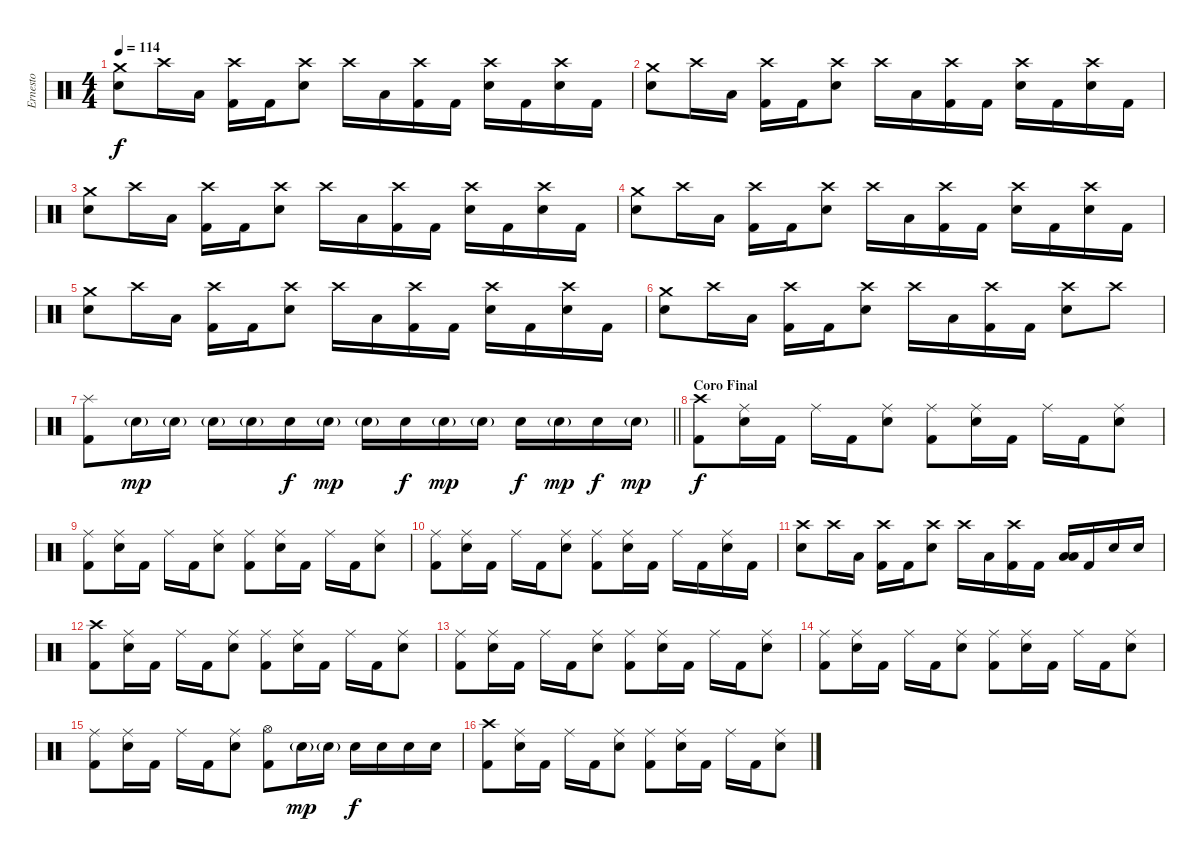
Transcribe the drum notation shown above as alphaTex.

\track ("Ernesto" "Ernesto") {instrument percussion}
\staff
\articulation defaults
\ts (4 4)
\tempo 114
\clef neutral
\ks c
("Crash medium (hit)" "Electric Snare (hit)").8{dy f} "Crash high (hit)".16 "Low Tom (hit)".16 ("Crash high (hit)" "Kick (hit) 2").16 "Kick (hit) 2".16 ("Crash high (hit)" "Electric Snare (hit)").8 "Crash high (hit)".16 "Low Tom (hit)".16 ("Crash high (hit)" "Kick (hit) 2").16 "Kick (hit) 2".16 ("Crash high (hit)" "Electric Snare (hit)").16 "Kick (hit) 2".16 ("Crash high (hit)" "Electric Snare (hit)").16 "Kick (hit) 2".16 |
("Crash medium (hit)" "Electric Snare (hit)").8 "Crash high (hit)".16 "Low Tom (hit)".16 ("Crash high (hit)" "Kick (hit) 2").16 "Kick (hit) 2".16 ("Crash high (hit)" "Electric Snare (hit)").8 "Crash high (hit)".16 "Low Tom (hit)".16 ("Crash high (hit)" "Kick (hit) 2").16 "Kick (hit) 2".16 ("Crash high (hit)" "Electric Snare (hit)").16 "Kick (hit) 2".16 ("Crash high (hit)" "Electric Snare (hit)").16 "Kick (hit) 2".16 |
("Crash medium (hit)" "Electric Snare (hit)").8 "Crash high (hit)".16 "Low Tom (hit)".16 ("Crash high (hit)" "Kick (hit) 2").16 "Kick (hit) 2".16 ("Crash high (hit)" "Electric Snare (hit)").8 "Crash high (hit)".16 "Low Tom (hit)".16 ("Crash high (hit)" "Kick (hit) 2").16 "Kick (hit) 2".16 ("Crash high (hit)" "Electric Snare (hit)").16 "Kick (hit) 2".16 ("Crash high (hit)" "Electric Snare (hit)").16 "Kick (hit) 2".16 |
("Crash medium (hit)" "Electric Snare (hit)").8 "Crash high (hit)".16 "Low Tom (hit)".16 ("Crash high (hit)" "Kick (hit) 2").16 "Kick (hit) 2".16 ("Crash high (hit)" "Electric Snare (hit)").8 "Crash high (hit)".16 "Low Tom (hit)".16 ("Crash high (hit)" "Kick (hit) 2").16 "Kick (hit) 2".16 ("Crash high (hit)" "Electric Snare (hit)").16 "Kick (hit) 2".16 ("Crash high (hit)" "Electric Snare (hit)").16 "Kick (hit) 2".16 |
("Crash medium (hit)" "Electric Snare (hit)").8 "Crash high (hit)".16 "Low Tom (hit)".16 ("Crash high (hit)" "Kick (hit) 2").16 "Kick (hit) 2".16 ("Crash high (hit)" "Electric Snare (hit)").8 "Crash high (hit)".16 "Low Tom (hit)".16 ("Crash high (hit)" "Kick (hit) 2").16 "Kick (hit) 2".16 ("Crash high (hit)" "Electric Snare (hit)").16 "Kick (hit) 2".16 ("Crash high (hit)" "Electric Snare (hit)").16 "Kick (hit) 2".16 |
("Crash medium (hit)" "Electric Snare (hit)").8 "Crash high (hit)".16 "Low Tom (hit)".16 ("Crash high (hit)" "Kick (hit) 2").16 "Kick (hit) 2".16 ("Crash high (hit)" "Electric Snare (hit)").8 "Crash high (hit)".16 "Low Tom (hit)".16 ("Crash high (hit)" "Kick (hit) 2").16 "Kick (hit) 2".16 ("Crash high (hit)" "Electric Snare (hit)").8 "Crash high (hit)".8 |
\barLineRight lightlight
("Splash (hit)" "Kick (hit) 2").8 "Electric Snare (hit)"{g}.16{dy mp} "Electric Snare (hit)"{g}.16 "Electric Snare (hit)"{g}.16 "Electric Snare (hit)"{g}.16 "Electric Snare (hit)".16{dy f} "Electric Snare (hit)"{g}.16{dy mp} "Electric Snare (hit)"{g}.16 "Electric Snare (hit)".16{dy f} "Electric Snare (hit)"{g}.16{dy mp} "Electric Snare (hit)"{g}.16 "Electric Snare (hit)".16{dy f} "Electric Snare (hit)"{g}.16{dy mp} "Electric Snare (hit)".16{dy f} "Electric Snare (hit)"{g}.16{dy mp} |
\section ("" "Coro Final")
("Crash high (hit)" "Kick (hit) 2").8{dy f} ("Ride (middle)" "Electric Snare (hit)").16 "Kick (hit) 2".16 "Ride (middle)".16 "Kick (hit) 2".16 ("Ride (middle)" "Electric Snare (hit)").8 ("Ride (middle)" "Kick (hit) 2").8 ("Ride (middle)" "Electric Snare (hit)").16 "Kick (hit) 2".16 "Ride (middle)".16 "Kick (hit) 2".16 ("Ride (middle)" "Electric Snare (hit)").8 |
("Ride (middle)" "Kick (hit) 2").8 ("Ride (middle)" "Electric Snare (hit)").16 "Kick (hit) 2".16 "Ride (middle)".16 "Kick (hit) 2".16 ("Ride (middle)" "Electric Snare (hit)").8 ("Ride (middle)" "Kick (hit) 2").8 ("Ride (middle)" "Electric Snare (hit)").16 "Kick (hit) 2".16 "Ride (middle)".16 "Kick (hit) 2".16 ("Ride (middle)" "Electric Snare (hit)").8 |
("Ride (middle)" "Kick (hit) 2").8 ("Ride (middle)" "Electric Snare (hit)").16 "Kick (hit) 2".16 "Ride (middle)".16 "Kick (hit) 2".16 ("Ride (middle)" "Electric Snare (hit)").8 ("Ride (middle)" "Kick (hit) 2").8 ("Ride (middle)" "Electric Snare (hit)").16 "Kick (hit) 2".16 "Ride (middle)".16 "Kick (hit) 2".16 ("Ride (middle)" "Electric Snare (hit)").16 "Kick (hit) 2".16 |
("Crash high (hit)" "Electric Snare (hit)").8 "Crash high (hit)".16 "Low Tom (hit)".16 ("Crash high (hit)" "Kick (hit) 2").16 "Kick (hit) 2".16 ("Crash high (hit)" "Electric Snare (hit)").8 "Crash high (hit)".16 "Low Tom (hit)".16 ("Crash high (hit)" "Kick (hit) 2").16 "Kick (hit) 2".16 ("Low Tom (hit)" "Low Floor Tom (hit)").16 "Kick (hit) 2".16 "Electric Snare (hit)".16 "Electric Snare (hit)".16 |
("Crash high (hit)" "Kick (hit) 2").8 ("Ride (middle)" "Electric Snare (hit)").16 "Kick (hit) 2".16 "Ride (middle)".16 "Kick (hit) 2".16 ("Ride (middle)" "Electric Snare (hit)").8 ("Ride (middle)" "Kick (hit) 2").8 ("Ride (middle)" "Electric Snare (hit)").16 "Kick (hit) 2".16 "Ride (middle)".16 "Kick (hit) 2".16 ("Ride (middle)" "Electric Snare (hit)").8 |
("Ride (middle)" "Kick (hit) 2").8 ("Ride (middle)" "Electric Snare (hit)").16 "Kick (hit) 2".16 "Ride (middle)".16 "Kick (hit) 2".16 ("Ride (middle)" "Electric Snare (hit)").8 ("Ride (middle)" "Kick (hit) 2").8 ("Ride (middle)" "Electric Snare (hit)").16 "Kick (hit) 2".16 "Ride (middle)".16 "Kick (hit) 2".16 ("Ride (middle)" "Electric Snare (hit)").8 |
("Ride (middle)" "Kick (hit) 2").8 ("Ride (middle)" "Electric Snare (hit)").16 "Kick (hit) 2".16 "Ride (middle)".16 "Kick (hit) 2".16 ("Ride (middle)" "Electric Snare (hit)").8 ("Ride (middle)" "Kick (hit) 2").8 ("Ride (middle)" "Electric Snare (hit)").16 "Kick (hit) 2".16 "Ride (middle)".16 "Kick (hit) 2".16 ("Ride (middle)" "Electric Snare (hit)").8 |
("Ride (middle)" "Kick (hit) 2").8 ("Ride (middle)" "Electric Snare (hit)").16 "Kick (hit) 2".16 "Ride (middle)".16 "Kick (hit) 2".16 ("Ride (middle)" "Electric Snare (hit)").8 ("Hi-Hat (open)" "Kick (hit) 2").8 "Electric Snare (hit)"{g}.16{dy mp} "Electric Snare (hit)"{g}.16 "Electric Snare (hit)".16{dy f} "Electric Snare (hit)".16 "Electric Snare (hit)".16 "Electric Snare (hit)".16 |
("Crash high (hit)" "Kick (hit) 2").8 ("Ride (middle)" "Electric Snare (hit)").16 "Kick (hit) 2".16 "Ride (middle)".16 "Kick (hit) 2".16 ("Ride (middle)" "Electric Snare (hit)").8 ("Ride (middle)" "Kick (hit) 2").8 ("Ride (middle)" "Electric Snare (hit)").16 "Kick (hit) 2".16 "Ride (middle)".16 "Kick (hit) 2".16 ("Ride (middle)" "Electric Snare (hit)").8
